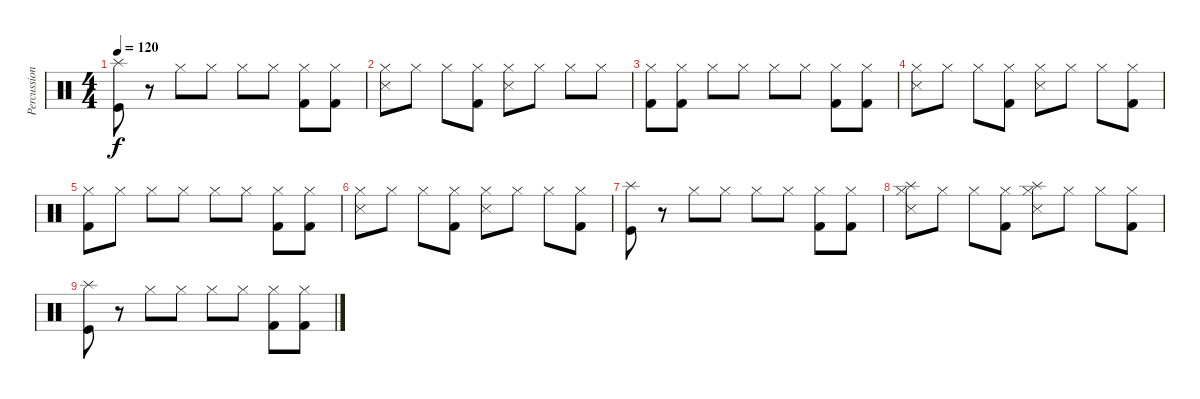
\track ("Percussion" "Percussion") {instrument percussion}
\staff {score}
\articulation defaults
\ts (4 4)
\tempo 120
\clef neutral
\ks c
("Splash (hit)" "Kick (hit)").8{dy f} r.8 "Hi-Hat (closed)".8 "Hi-Hat (closed)".8 "Hi-Hat (closed)".8 "Hi-Hat (closed)".8 ("Kick (hit) 2" "Hi-Hat (closed)").8 ("Kick (hit) 2" "Hi-Hat (closed)").8 |
("Snare (side stick) 3" "Hi-Hat (closed)").8 "Hi-Hat (closed)".8 "Hi-Hat (closed)".8 ("Kick (hit) 2" "Hi-Hat (closed)").8 ("Snare (side stick) 3" "Hi-Hat (closed)").8 "Hi-Hat (closed)".8 "Hi-Hat (closed)".8 "Hi-Hat (closed)".8 |
("Kick (hit) 2" "Hi-Hat (closed)").8 ("Kick (hit) 2" "Hi-Hat (closed)").8 "Hi-Hat (closed)".8 "Hi-Hat (closed)".8 "Hi-Hat (closed)".8 "Hi-Hat (closed)".8 ("Kick (hit) 2" "Hi-Hat (closed)").8 ("Kick (hit) 2" "Hi-Hat (closed)").8 |
("Snare (side stick) 3" "Hi-Hat (closed)").8 "Hi-Hat (closed)".8 "Hi-Hat (closed)".8 ("Kick (hit) 2" "Hi-Hat (closed)").8 ("Snare (side stick) 3" "Hi-Hat (closed)").8 "Hi-Hat (closed)".8 "Hi-Hat (closed)".8 ("Kick (hit) 2" "Hi-Hat (closed)").8 |
("Kick (hit) 2" "Hi-Hat (closed)").8 "Hi-Hat (closed)".8 "Hi-Hat (closed)".8 "Hi-Hat (closed)".8 "Hi-Hat (closed)".8 "Hi-Hat (closed)".8 ("Kick (hit) 2" "Hi-Hat (closed)").8 ("Kick (hit) 2" "Hi-Hat (closed)").8 |
("Snare (side stick) 3" "Hi-Hat (closed)").8 "Hi-Hat (closed)".8 "Hi-Hat (closed)".8 ("Kick (hit) 2" "Hi-Hat (closed)").8 ("Snare (side stick) 3" "Hi-Hat (closed)").8 "Hi-Hat (closed)".8 "Hi-Hat (closed)".8 ("Kick (hit) 2" "Hi-Hat (closed)").8 |
("Splash (hit)" "Kick (hit)").8 r.8 "Hi-Hat (closed)".8 "Hi-Hat (closed)".8 "Hi-Hat (closed)".8 "Hi-Hat (closed)".8 ("Kick (hit) 2" "Hi-Hat (closed)").8 ("Kick (hit) 2" "Hi-Hat (closed)").8 |
("Splash (hit)" "Snare (side stick) 3" "Hi-Hat (closed)").8 "Hi-Hat (closed)".8 "Hi-Hat (closed)".8 ("Kick (hit) 2" "Hi-Hat (closed)").8 ("Splash (hit)" "Snare (side stick) 3" "Hi-Hat (closed)").8 "Hi-Hat (closed)".8 "Hi-Hat (closed)".8 ("Kick (hit) 2" "Hi-Hat (closed)").8 |
("Splash (hit)" "Kick (hit)").8 r.8 "Hi-Hat (closed)".8 "Hi-Hat (closed)".8 "Hi-Hat (closed)".8 "Hi-Hat (closed)".8 ("Kick (hit) 2" "Hi-Hat (closed)").8 ("Kick (hit) 2" "Hi-Hat (closed)").8
